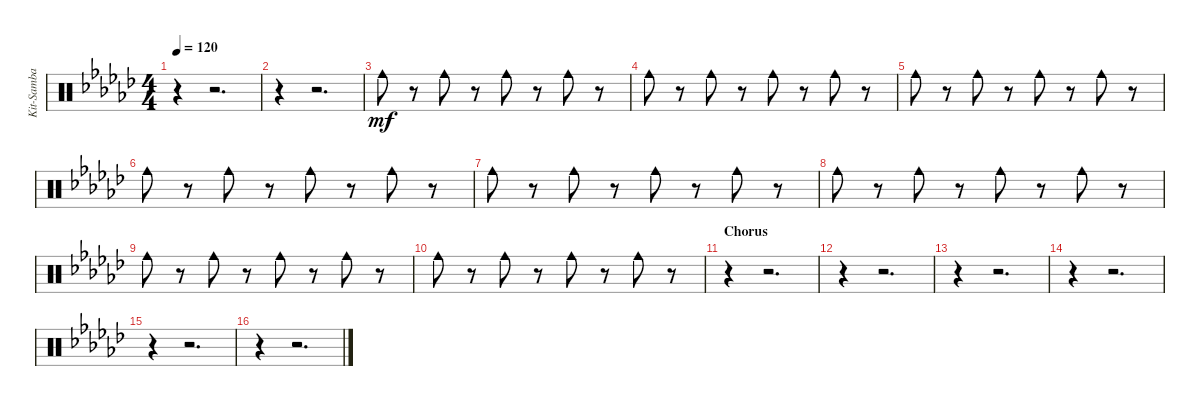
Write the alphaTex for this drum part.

\track ("Kit-Samba" "Kit-Samba") {instrument percussion}
\staff {score}
\articulation defaults
\ts (4 4)
\tempo 120
\clef neutral
\ks ebminor
r.4{dy mf} r.2{d} |
r.4 r.2{d} |
"Cowbell medium (hit)".8 r.8 "Cowbell medium (hit)".8 r.8 "Cowbell medium (hit)".8 r.8 "Cowbell medium (hit)".8 r.8 |
"Cowbell medium (hit)".8 r.8 "Cowbell medium (hit)".8 r.8 "Cowbell medium (hit)".8 r.8 "Cowbell medium (hit)".8 r.8 |
"Cowbell medium (hit)".8 r.8 "Cowbell medium (hit)".8 r.8 "Cowbell medium (hit)".8 r.8 "Cowbell medium (hit)".8 r.8 |
"Cowbell medium (hit)".8 r.8 "Cowbell medium (hit)".8 r.8 "Cowbell medium (hit)".8 r.8 "Cowbell medium (hit)".8 r.8 |
"Cowbell medium (hit)".8 r.8 "Cowbell medium (hit)".8 r.8 "Cowbell medium (hit)".8 r.8 "Cowbell medium (hit)".8 r.8 |
"Cowbell medium (hit)".8 r.8 "Cowbell medium (hit)".8 r.8 "Cowbell medium (hit)".8 r.8 "Cowbell medium (hit)".8 r.8 |
"Cowbell medium (hit)".8 r.8 "Cowbell medium (hit)".8 r.8 "Cowbell medium (hit)".8 r.8 "Cowbell medium (hit)".8 r.8 |
"Cowbell medium (hit)".8 r.8 "Cowbell medium (hit)".8 r.8 "Cowbell medium (hit)".8 r.8 "Cowbell medium (hit)".8 r.8 |
\section ("" "Chorus")
r.4 r.2{d} |
r.4 r.2{d} |
r.4 r.2{d} |
r.4 r.2{d} |
r.4 r.2{d} |
r.4 r.2{d}
